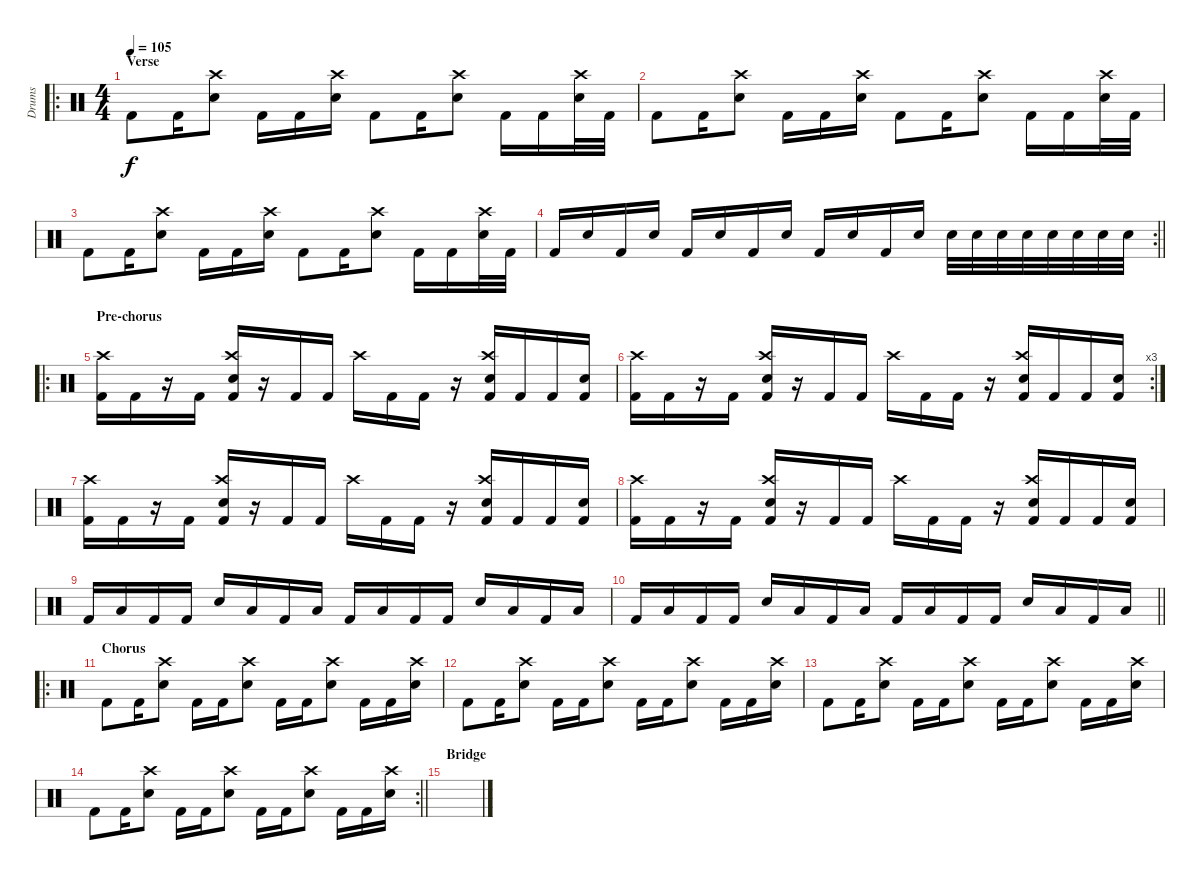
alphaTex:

\track ("Drums" "Drums") {instrument percussion}
\staff {score}
\articulation defaults
\ro
\ts (4 4)
\section ("" "Verse")
\tempo 105
\clef neutral
\ks c "Kick (hit) 2".8{dy f} "Kick (hit) 2".16
("Crash high (hit)" "Electric Snare (hit)").8 "Kick (hit) 2".16 "Kick (hit) 2".16 ("Crash high (hit)" "Electric Snare (hit)").16 "Kick (hit) 2".8 "Kick (hit) 2".16 ("Crash high (hit)" "Electric Snare (hit)").8 "Kick (hit) 2".16 "Kick (hit) 2".16 ("Crash high (hit)" "Electric Snare (hit)").32 "Kick (hit) 2".32 |
"Kick (hit) 2".8 "Kick (hit) 2".16 ("Crash high (hit)" "Electric Snare (hit)").8 "Kick (hit) 2".16 "Kick (hit) 2".16 ("Crash high (hit)" "Electric Snare (hit)").16 "Kick (hit) 2".8 "Kick (hit) 2".16 ("Crash high (hit)" "Electric Snare (hit)").8 "Kick (hit) 2".16 "Kick (hit) 2".16 ("Crash high (hit)" "Electric Snare (hit)").32 "Kick (hit) 2".32 |
"Kick (hit) 2".8 "Kick (hit) 2".16 ("Crash high (hit)" "Electric Snare (hit)").8 "Kick (hit) 2".16 "Kick (hit) 2".16 ("Crash high (hit)" "Electric Snare (hit)").16 "Kick (hit) 2".8 "Kick (hit) 2".16 ("Crash high (hit)" "Electric Snare (hit)").8 "Kick (hit) 2".16 "Kick (hit) 2".16 ("Crash high (hit)" "Electric Snare (hit)").32 "Kick (hit) 2".32 |
\rc 2
\barLineRight lightlight "Kick (hit) 2".16 "Electric Snare (hit)".16 "Kick (hit) 2".16 "Electric Snare (hit)".16 "Kick (hit) 2".16 "Electric Snare (hit)".16 "Kick (hit) 2".16 "Electric Snare (hit)".16 "Kick (hit) 2".16 "Electric Snare (hit)".16 "Kick (hit) 2".16 "Electric Snare (hit)".16 "Electric Snare (hit)".32 "Electric Snare (hit)".32 "Electric Snare (hit)".32 "Electric Snare (hit)".32 "Electric Snare (hit)".32 "Electric Snare (hit)".32 "Electric Snare (hit)".32 "Electric Snare (hit)".32
|
\ro
\section ("" "Pre-chorus")
("Crash high (hit)" "Kick (hit) 2").16 "Kick (hit) 2".16 r.16 "Kick (hit) 2".16 ("Crash high (hit)" "Electric Snare (hit)" "Kick (hit) 2").16 r.16 "Kick (hit) 2".16 "Kick (hit) 2".16 "Crash high (hit)".16 "Kick (hit) 2".16 "Kick (hit) 2".16 r.16 ("Crash high (hit)" "Electric Snare (hit)" "Kick (hit) 2").16 "Kick (hit) 2".16 "Kick (hit) 2".16 ("Electric Snare (hit)" "Kick (hit) 2").16 |
\rc 3
("Crash high (hit)" "Kick (hit) 2").16 "Kick (hit) 2".16 r.16 "Kick (hit) 2".16 ("Crash high (hit)" "Electric Snare (hit)" "Kick (hit) 2").16 r.16 "Kick (hit) 2".16 "Kick (hit) 2".16 "Crash high (hit)".16 "Kick (hit) 2".16 "Kick (hit) 2".16 r.16 ("Crash high (hit)" "Electric Snare (hit)" "Kick (hit) 2").16 "Kick (hit) 2".16 "Kick (hit) 2".16 ("Electric Snare (hit)" "Kick (hit) 2").16 |
("Crash high (hit)" "Kick (hit) 2").16 "Kick (hit) 2".16 r.16 "Kick (hit) 2".16 ("Crash high (hit)" "Electric Snare (hit)" "Kick (hit) 2").16 r.16 "Kick (hit) 2".16 "Kick (hit) 2".16 "Crash high (hit)".16 "Kick (hit) 2".16 "Kick (hit) 2".16 r.16 ("Crash high (hit)" "Electric Snare (hit)" "Kick (hit) 2").16 "Kick (hit) 2".16 "Kick (hit) 2".16 ("Electric Snare (hit)" "Kick (hit) 2").16 |
("Crash high (hit)" "Kick (hit) 2").16 "Kick (hit) 2".16 r.16 "Kick (hit) 2".16 ("Crash high (hit)" "Electric Snare (hit)" "Kick (hit) 2").16 r.16 "Kick (hit) 2".16 "Kick (hit) 2".16 "Crash high (hit)".16 "Kick (hit) 2".16 "Kick (hit) 2".16 r.16 ("Crash high (hit)" "Electric Snare (hit)" "Kick (hit) 2").16 "Kick (hit) 2".16 "Kick (hit) 2".16 ("Electric Snare (hit)" "Kick (hit) 2").16 |
"Kick (hit) 2".16 "Low Tom (hit)".16 "Kick (hit) 2".16 "Kick (hit) 2".16 "Electric Snare (hit)".16 "Low Tom (hit)".16 "Kick (hit) 2".16 "Low Tom (hit)".16 "Kick (hit) 2".16 "Low Tom (hit)".16 "Kick (hit) 2".16 "Kick (hit) 2".16 "Electric Snare (hit)".16 "Low Tom (hit)".16 "Kick (hit) 2".16 "Low Tom (hit)".16 |
\barLineRight lightlight "Kick (hit) 2".16 "Low Tom (hit)".16 "Kick (hit) 2".16 "Kick (hit) 2".16 "Electric Snare (hit)".16 "Low Tom (hit)".16 "Kick (hit) 2".16 "Low Tom (hit)".16 "Kick (hit) 2".16 "Low Tom (hit)".16 "Kick (hit) 2".16 "Kick (hit) 2".16 "Electric Snare (hit)".16 "Low Tom (hit)".16 "Kick (hit) 2".16 "Low Tom (hit)".16
|
\ro
\section ("" "Chorus")
"Kick (hit) 2".8 "Kick (hit) 2".16 ("Crash high (hit)" "Electric Snare (hit)").8 "Kick (hit) 2".16 "Kick (hit) 2".16 ("Crash high (hit)" "Electric Snare (hit)").8 "Kick (hit) 2".16 "Kick (hit) 2".16 ("Crash high (hit)" "Electric Snare (hit)").8 "Kick (hit) 2".16 "Kick (hit) 2".16 ("Crash high (hit)" "Electric Snare (hit)").16 |
"Kick (hit) 2".8 "Kick (hit) 2".16 ("Crash high (hit)" "Electric Snare (hit)").8 "Kick (hit) 2".16 "Kick (hit) 2".16 ("Crash high (hit)" "Electric Snare (hit)").8 "Kick (hit) 2".16 "Kick (hit) 2".16 ("Crash high (hit)" "Electric Snare (hit)").8 "Kick (hit) 2".16 "Kick (hit) 2".16 ("Crash high (hit)" "Electric Snare (hit)").16 |
"Kick (hit) 2".8 "Kick (hit) 2".16 ("Crash high (hit)" "Electric Snare (hit)").8 "Kick (hit) 2".16 "Kick (hit) 2".16 ("Crash high (hit)" "Electric Snare (hit)").8 "Kick (hit) 2".16 "Kick (hit) 2".16 ("Crash high (hit)" "Electric Snare (hit)").8 "Kick (hit) 2".16 "Kick (hit) 2".16 ("Crash high (hit)" "Electric Snare (hit)").16 |
\rc 2
\barLineRight lightlight "Kick (hit) 2".8 "Kick (hit) 2".16
("Crash high (hit)" "Electric Snare (hit)").8 "Kick (hit) 2".16 "Kick (hit) 2".16 ("Crash high (hit)" "Electric Snare (hit)").8 "Kick (hit) 2".16 "Kick (hit) 2".16 ("Crash high (hit)" "Electric Snare (hit)").8 "Kick (hit) 2".16 "Kick (hit) 2".16 ("Crash high (hit)" "Electric Snare (hit)").16 |
\section ("" "Bridge")
